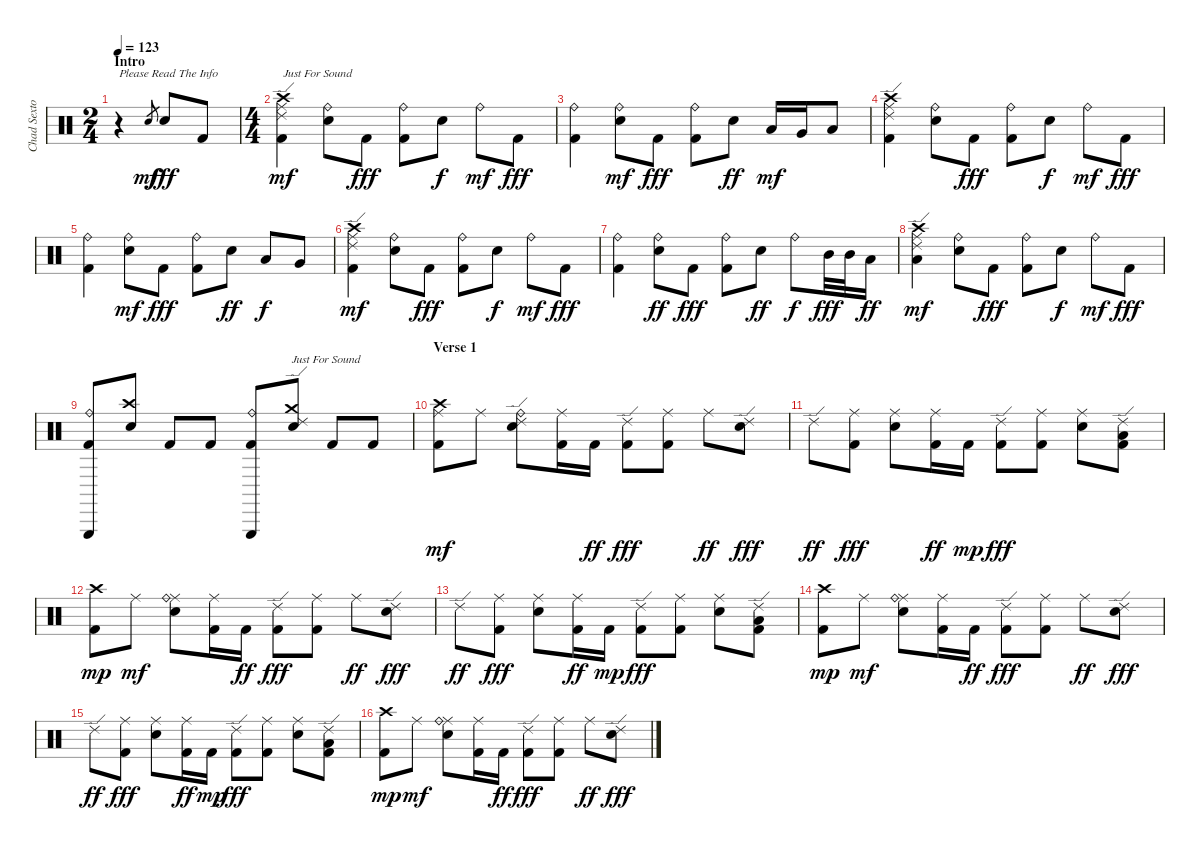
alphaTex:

\track ("Chad Sexton (Drums)" "Chad Sexto") {instrument percussion}
\staff {score}
\articulation defaults
\ts (2 4)
\section ("" "Intro")
\tempo 123
\clef neutral
\ks c
r.4{txt "Please Read The Info" dy mf} "Electric Snare (hit)".8{gr} "Electric Snare (hit)".8{dy fff} "Kick (hit) 2".8 |
\ts (4 4)
("Ride (edge) 2" "Kick (hit) 2" "Ride (middle)" "Crash high (hit)").4{txt "Just For Sound" dy mf} ("Ride (bell)" "Electric Snare (hit)").8 "Kick (hit) 2".8{dy fff} ("Ride (bell)" "Kick (hit) 2").8 "Electric Snare (hit)".8{dy f} "Ride (bell)".8{dy mf} "Kick (hit) 2".8{dy fff} |
("Ride (bell)" "Kick (hit) 2").4 ("Ride (bell)" "Electric Snare (hit)").8{dy mf} "Kick (hit) 2".8{dy fff} ("Ride (bell)" "Kick (hit) 2").8 "Electric Snare (hit)".8{dy ff} "Low Tom (hit)".16{dy mf} "Very Low Tom (hit)".16 "Low Floor Tom (hit)".8 |
("Ride (edge) 2" "Kick (hit) 2" "Ride (middle)" "Crash high (hit)").4 ("Ride (bell)" "Electric Snare (hit)").8 "Kick (hit) 2".8{dy fff} ("Ride (bell)" "Kick (hit) 2").8 "Electric Snare (hit)".8{dy f} "Ride (bell)".8{dy mf} "Kick (hit) 2".8{dy fff} |
("Ride (bell)" "Kick (hit) 2").4 ("Ride (bell)" "Electric Snare (hit)").8{dy mf} "Kick (hit) 2".8{dy fff} ("Ride (bell)" "Kick (hit) 2").8 "Electric Snare (hit)".8{dy ff} "Low Tom (hit)".8{dy f} "Very Low Tom (hit)".8 |
("Ride (edge) 2" "Kick (hit) 2" "Ride (middle)" "Crash high (hit)").4{dy mf} ("Ride (bell)" "Electric Snare (hit)").8 "Kick (hit) 2".8{dy fff} ("Ride (bell)" "Kick (hit) 2").8 "Electric Snare (hit)".8{dy f} "Ride (bell)".8{dy mf} "Kick (hit) 2".8{dy fff} |
("Ride (bell)" "Kick (hit) 2").4 ("Ride (bell)" "Electric Snare (hit)").8{dy ff} "Kick (hit) 2".8{dy fff} ("Ride (bell)" "Kick (hit) 2").8 "Electric Snare (hit)".8{dy ff} "Ride (bell)".8{dy f} "Mid Tom (hit)".32{dy fff} "Mid Tom (hit)".32 "Low Tom (hit)".16{dy ff} |
("Ride (edge) 2" "Low Tom (hit)" "Ride (middle)" "Crash high (hit)").4{dy mf} ("Ride (bell)" "Electric Snare (hit)").8 "Kick (hit) 2".8{dy fff} ("Ride (bell)" "Kick (hit) 2").8 "Electric Snare (hit)".8{dy f} "Ride (bell)".8{dy mf} "Kick (hit) 2".8{dy fff} |
("Ride (bell)" "Kick (hit) 2" "Triangle (hit)").8 ("Crash high (hit)" "Electric Snare (hit)").8 "Kick (hit) 2".8 "Kick (hit) 2".8 ("Ride (bell)" "Kick (hit) 2" "Triangle (hit)").8 ("Crash medium (hit)" "Electric Snare (hit)" "Ride (edge) 2").8{txt "Just For Sound"} "Kick (hit) 2".8 "Kick (hit) 2".8 |
\section ("" "Verse 1")
("Ride (middle)" "Kick (hit) 2" "Crash high (hit)").8{dy mf volume 13} "Ride (middle)".8 ("Ride (edge) 2" "Electric Snare (hit)" "Ride (bell)").8 ("Ride (middle)" "Kick (hit) 2").16 "Kick (hit) 2".16{dy ff} ("Ride (edge) 2" "Kick (hit) 2").8{dy fff} ("Ride (middle)" "Kick (hit) 2").8 "Ride (middle)".8{dy ff} ("Ride (edge) 2" "Electric Snare (hit)").8{dy fff} |
"Ride (edge) 2".8{dy ff} ("Ride (middle)" "Kick (hit) 2").8{dy fff} ("Ride (middle)" "Electric Snare (hit)").8 ("Ride (middle)" "Kick (hit) 2").16{dy ff} "Kick (hit) 2".16{dy mp} ("Ride (edge) 2" "Kick (hit) 2").8{dy fff} ("Ride (middle)" "Kick (hit) 2").8 ("Ride (middle)" "Electric Snare (hit)").8 ("Ride (edge) 2" "Kick (hit) 2" "Low Tom (hit)").8 |
("Kick (hit) 2" "Crash high (hit)").8{dy mp} "Ride (middle)".8{dy mf} ("Ride (middle)" "Electric Snare (hit)" "Ride (bell)").8 ("Ride (middle)" "Kick (hit) 2").16 "Kick (hit) 2".16{dy ff} ("Ride (edge) 2" "Kick (hit) 2").8{dy fff} ("Ride (middle)" "Kick (hit) 2").8 "Ride (middle)".8{dy ff} ("Ride (edge) 2" "Electric Snare (hit)").8{dy fff} |
"Ride (edge) 2".8{dy ff} ("Ride (middle)" "Kick (hit) 2").8{dy fff} ("Ride (middle)" "Electric Snare (hit)").8 ("Ride (middle)" "Kick (hit) 2").16{dy ff} "Kick (hit) 2".16{dy mp} ("Ride (edge) 2" "Kick (hit) 2").8{dy fff} ("Ride (middle)" "Kick (hit) 2").8 ("Ride (middle)" "Electric Snare (hit)").8 ("Ride (edge) 2" "Kick (hit) 2" "Low Tom (hit)").8 |
("Kick (hit) 2" "Crash high (hit)").8{dy mp} "Ride (middle)".8{dy mf} ("Ride (middle)" "Electric Snare (hit)" "Ride (bell)").8 ("Ride (middle)" "Kick (hit) 2").16 "Kick (hit) 2".16{dy ff} ("Ride (edge) 2" "Kick (hit) 2").8{dy fff} ("Ride (middle)" "Kick (hit) 2").8 "Ride (middle)".8{dy ff} ("Ride (edge) 2" "Electric Snare (hit)").8{dy fff} |
"Ride (edge) 2".8{dy ff} ("Ride (middle)" "Kick (hit) 2").8{dy fff} ("Ride (middle)" "Electric Snare (hit)").8 ("Ride (middle)" "Kick (hit) 2").16{dy ff} "Kick (hit) 2".16{dy mp} ("Ride (edge) 2" "Kick (hit) 2").8{dy fff} ("Ride (middle)" "Kick (hit) 2").8 ("Ride (middle)" "Electric Snare (hit)").8 ("Ride (edge) 2" "Kick (hit) 2" "Low Tom (hit)").8 |
("Kick (hit) 2" "Crash high (hit)").8{dy mp} "Ride (middle)".8{dy mf} ("Ride (middle)" "Electric Snare (hit)" "Ride (bell)").8 ("Ride (middle)" "Kick (hit) 2").16 "Kick (hit) 2".16{dy ff} ("Ride (edge) 2" "Kick (hit) 2").8{dy fff} ("Ride (middle)" "Kick (hit) 2").8 "Ride (middle)".8{dy ff} ("Ride (edge) 2" "Electric Snare (hit)").8{dy fff}
